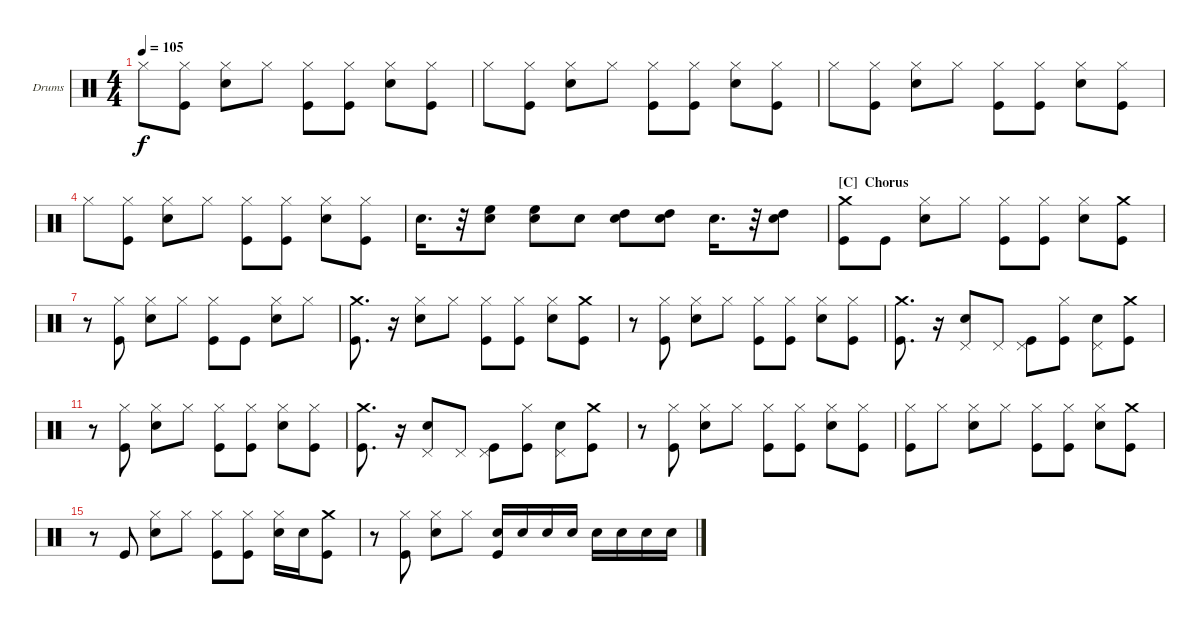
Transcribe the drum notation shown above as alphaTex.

\bracketExtendMode nobrackets
\firstSystemTrackNameOrientation horizontal
\otherSystemsTrackNameOrientation horizontal
\defaultBarNumberDisplay FirstOfSystem
\track ("Drumkit" "Drums") {instrument percussion}
\staff {score}
\articulation defaults
\ts (4 4)
\tempo 105
\clef neutral
\ks c "Hi-Hat (closed)".8{dy f}
("Kick (hit)" "Hi-Hat (closed)").8 ("Snare (hit) 2" "Hi-Hat (closed)").8 "Hi-Hat (closed)".8 ("Kick (hit)" "Hi-Hat (closed)").8 ("Kick (hit)" "Hi-Hat (closed)").8 ("Snare (hit) 2" "Hi-Hat (closed)").8 ("Kick (hit)" "Hi-Hat (closed)").8 |
\scale
0.220833 "Hi-Hat (closed)".8 ("Kick (hit)" "Hi-Hat (closed)").8 ("Snare (hit) 2" "Hi-Hat (closed)").8 "Hi-Hat (closed)".8 ("Kick (hit)" "Hi-Hat (closed)").8 ("Kick (hit)" "Hi-Hat (closed)").8 ("Snare (hit) 2" "Hi-Hat (closed)").8 ("Kick (hit)" "Hi-Hat (closed)").8 |
\scale
0.288917 "Hi-Hat (closed)".8 ("Kick (hit)" "Hi-Hat (closed)").8 ("Snare (hit) 2" "Hi-Hat (closed)").8 "Hi-Hat (closed)".8 ("Kick (hit)" "Hi-Hat (closed)").8 ("Kick (hit)" "Hi-Hat (closed)").8 ("Snare (hit) 2" "Hi-Hat (closed)").8 ("Kick (hit)" "Hi-Hat (closed)").8 |
\scale
0.224535 "Hi-Hat (closed)".8 ("Kick (hit)" "Hi-Hat (closed)").8 ("Snare (hit) 2" "Hi-Hat (closed)").8 "Hi-Hat (closed)".8 ("Kick (hit)" "Hi-Hat (closed)").8 ("Kick (hit)" "Hi-Hat (closed)").8 ("Snare (hit) 2" "Hi-Hat (closed)").8 ("Kick (hit)" "Hi-Hat (closed)").8 |
\scale
0.267695 "Snare (hit) 2".16{d} r.32 ("Snare (hit) 2" "High Floor Tom (hit)").8 ("Snare (hit) 2" "High Floor Tom (hit)").8 "Snare (hit) 2".8 ("Snare (hit) 2" "High Tom (hit)").8 ("Snare (hit) 2" "High Tom (hit)").8 "Snare (hit) 2".16{d} r.32 ("Snare (hit) 2" "High Tom (hit)").8 |
\section ("C" " Chorus")
("Kick (hit)" "Crash medium (hit)").8 "Kick (hit)".8 ("Snare (hit) 2" "Hi-Hat (closed)").8 "Hi-Hat (closed)".8 ("Kick (hit)" "Hi-Hat (closed)").8 ("Kick (hit)" "Hi-Hat (closed)").8 ("Snare (hit) 2" "Hi-Hat (closed)").8 ("Kick (hit)" "Crash medium (hit)").8 |
r.8 ("Kick (hit)" "Hi-Hat (closed)").8 ("Snare (hit) 2" "Hi-Hat (closed)").8 "Hi-Hat (closed)".8 ("Kick (hit)" "Hi-Hat (closed)").8 "Kick (hit)".8 ("Snare (hit) 2" "Hi-Hat (closed)").8 "Hi-Hat (closed)".8 |
("Kick (hit)" "Crash medium (hit)").8{d} r.16 ("Snare (hit) 2" "Hi-Hat (closed)").8 "Hi-Hat (closed)".8 ("Kick (hit)" "Hi-Hat (closed)").8 ("Kick (hit)" "Hi-Hat (closed)").8 ("Snare (hit) 2" "Hi-Hat (closed)").8 ("Kick (hit)" "Crash medium (hit)").8 |
r.8 ("Kick (hit)" "Hi-Hat (closed)").8 ("Snare (hit) 2" "Hi-Hat (closed)").8 "Hi-Hat (closed)".8 ("Kick (hit)" "Hi-Hat (closed)").8 ("Kick (hit)" "Hi-Hat (closed)").8 ("Snare (hit) 2" "Hi-Hat (closed)").8 ("Kick (hit)" "Hi-Hat (closed)").8 |
("Kick (hit)" "Crash medium (hit)").8{d} r.16 ("Snare (hit) 2" "Pedal Hi-Hat (hit)").8 "Pedal Hi-Hat (hit)".8 ("Kick (hit)" "Pedal Hi-Hat (hit)").8 ("Kick (hit)" "Hi-Hat (closed)").8 ("Snare (hit) 2" "Pedal Hi-Hat (hit)").8 ("Kick (hit)" "Crash medium (hit)").8 |
r.8 ("Kick (hit)" "Hi-Hat (closed)").8 ("Snare (hit) 2" "Hi-Hat (closed)").8 "Hi-Hat (closed)".8 ("Kick (hit)" "Hi-Hat (closed)").8 ("Kick (hit)" "Hi-Hat (closed)").8 ("Snare (hit) 2" "Hi-Hat (closed)").8 ("Kick (hit)" "Hi-Hat (closed)").8 |
("Kick (hit)" "Crash medium (hit)").8{d} r.16 ("Snare (hit) 2" "Pedal Hi-Hat (hit)").8 "Pedal Hi-Hat (hit)".8 ("Kick (hit)" "Pedal Hi-Hat (hit)").8 ("Kick (hit)" "Hi-Hat (closed)").8 ("Snare (hit) 2" "Pedal Hi-Hat (hit)").8 ("Kick (hit)" "Crash medium (hit)").8 |
r.8 ("Kick (hit)" "Hi-Hat (closed)").8 ("Snare (hit) 2" "Hi-Hat (closed)").8 "Hi-Hat (closed)".8 ("Kick (hit)" "Hi-Hat (closed)").8 ("Kick (hit)" "Hi-Hat (closed)").8 ("Snare (hit) 2" "Hi-Hat (closed)").8 ("Kick (hit)" "Hi-Hat (closed)").8 |
("Kick (hit)" "Hi-Hat (closed)").8 "Hi-Hat (closed)".8 ("Snare (hit) 2" "Hi-Hat (closed)").8 "Hi-Hat (closed)".8 ("Kick (hit)" "Hi-Hat (closed)").8 ("Kick (hit)" "Hi-Hat (closed)").8 ("Snare (hit) 2" "Hi-Hat (closed)").8 ("Kick (hit)" "Crash medium (hit)").8 |
r.8 "Kick (hit)".8 ("Snare (hit) 2" "Hi-Hat (closed)").8 "Hi-Hat (closed)".8 ("Kick (hit)" "Hi-Hat (closed)").8 ("Kick (hit)" "Hi-Hat (closed)").8 ("Snare (hit) 2" "Hi-Hat (closed)").16 "Snare (hit) 2".16 ("Kick (hit)" "Crash medium (hit)").8 |
r.8 ("Kick (hit)" "Hi-Hat (closed)").8 ("Snare (hit) 2" "Hi-Hat (closed)").8 "Hi-Hat (closed)".8 ("Kick (hit)" "Snare (hit) 2").16 "Snare (hit) 2".16 "Snare (hit) 2".16 "Snare (hit) 2".16 "Snare (hit) 2".16 "Snare (hit) 2".16 "Snare (hit) 2".16 "Snare (hit) 2".16
